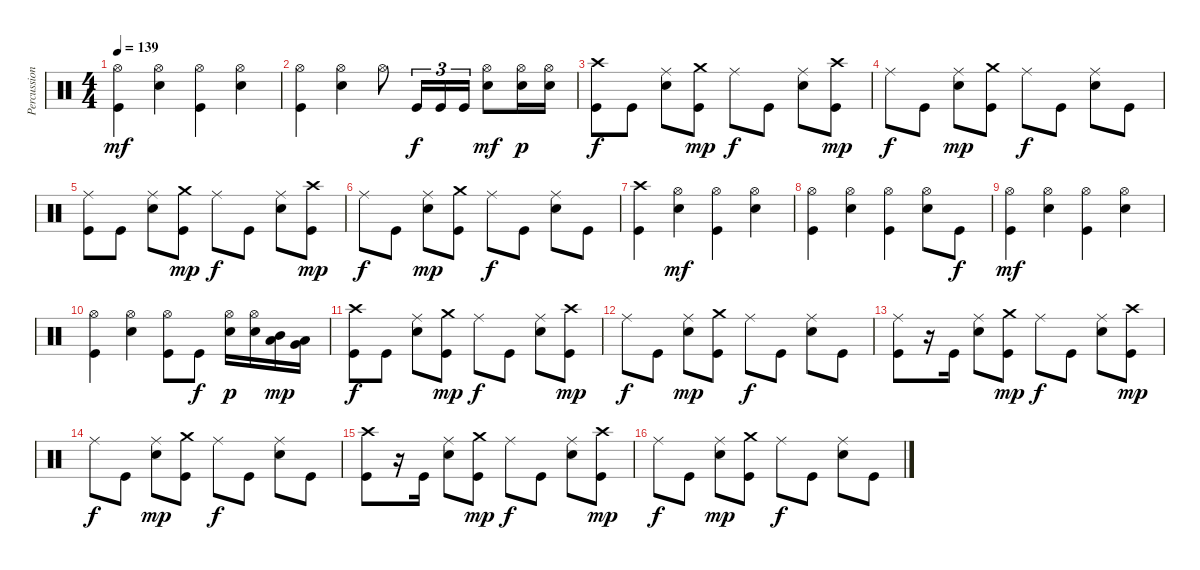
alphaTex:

\track ("Percussions" "Percussion") {instrument percussion}
\staff {score}
\articulation defaults
\ts (4 4)
\tempo 139
\clef neutral
\ks c
("Kick (hit)" "Hi-Hat (open)").4{dy mf} ("Electric Snare (hit)" "Hi-Hat (open)").4 ("Kick (hit)" "Hi-Hat (open)").4 ("Electric Snare (hit)" "Hi-Hat (open)").4 |
("Kick (hit)" "Hi-Hat (open)").4 ("Electric Snare (hit)" "Hi-Hat (open)").4 "Hi-Hat (open)".8 "Kick (hit)".16{tu (3 2) dy f} "Kick (hit)".16{tu (3 2)} "Kick (hit)".16{tu (3 2)} ("Electric Snare (hit)" "Hi-Hat (open)").8{dy mf} ("Electric Snare (hit)" "Hi-Hat (open)").16{dy p} ("Electric Snare (hit)" "Hi-Hat (open)").16 |
("Kick (hit)" "Crash high (hit)").8{dy f} "Kick (hit)".8 ("Electric Snare (hit)" "Ride (middle)").8 ("Kick (hit)" "Crash medium (hit)").8{dy mp} "Ride (middle)".8{dy f} "Kick (hit)".8 ("Electric Snare (hit)" "Ride (middle)").8 ("Kick (hit)" "Crash high (hit)").8{dy mp} |
"Ride (middle)".8{dy f} "Kick (hit)".8 ("Electric Snare (hit)" "Ride (middle)").8{dy mp} ("Kick (hit)" "Crash medium (hit)").8 "Ride (middle)".8{dy f} "Kick (hit)".8 ("Electric Snare (hit)" "Ride (middle)").8 "Kick (hit)".8 |
("Kick (hit)" "Ride (middle)").8 "Kick (hit)".8 ("Electric Snare (hit)" "Ride (middle)").8 ("Kick (hit)" "Crash medium (hit)").8{dy mp} "Ride (middle)".8{dy f} "Kick (hit)".8 ("Electric Snare (hit)" "Ride (middle)").8 ("Kick (hit)" "Crash high (hit)").8{dy mp} |
"Ride (middle)".8{dy f} "Kick (hit)".8 ("Electric Snare (hit)" "Ride (middle)").8{dy mp} ("Kick (hit)" "Crash medium (hit)").8 "Ride (middle)".8{dy f} "Kick (hit)".8 ("Electric Snare (hit)" "Ride (middle)").8 "Kick (hit)".8 |
("Kick (hit)" "Crash high (hit)").4 ("Electric Snare (hit)" "Hi-Hat (open)").4{dy mf} ("Kick (hit)" "Hi-Hat (open)").4 ("Electric Snare (hit)" "Hi-Hat (open)").4 |
("Kick (hit)" "Hi-Hat (open)").4 ("Electric Snare (hit)" "Hi-Hat (open)").4 ("Kick (hit)" "Hi-Hat (open)").4 ("Electric Snare (hit)" "Hi-Hat (open)").8 "Kick (hit)".8{dy f} |
("Kick (hit)" "Hi-Hat (open)").4{dy mf} ("Electric Snare (hit)" "Hi-Hat (open)").4 ("Kick (hit)" "Hi-Hat (open)").4 ("Electric Snare (hit)" "Hi-Hat (open)").4 |
("Kick (hit)" "Hi-Hat (open)").4 ("Electric Snare (hit)" "Hi-Hat (open)").4 ("Kick (hit)" "Hi-Hat (open)").8 "Kick (hit)".8{dy f} ("Electric Snare (hit)" "Hi-Hat (open)").16{dy p} ("Electric Snare (hit)" "Hi-Hat (open)").16 ("Low Tom (hit)" "Mid Tom (hit)").16{dy mp} ("Very Low Tom (hit)" "Low Tom (hit)").16 |
("Kick (hit)" "Crash high (hit)").8{dy f} "Kick (hit)".8 ("Electric Snare (hit)" "Ride (middle)").8 ("Kick (hit)" "Crash medium (hit)").8{dy mp} "Ride (middle)".8{dy f} "Kick (hit)".8 ("Electric Snare (hit)" "Ride (middle)").8 ("Kick (hit)" "Crash high (hit)").8{dy mp} |
"Ride (middle)".8{dy f} "Kick (hit)".8 ("Electric Snare (hit)" "Ride (middle)").8{dy mp} ("Kick (hit)" "Crash medium (hit)").8 "Ride (middle)".8{dy f} "Kick (hit)".8 ("Electric Snare (hit)" "Ride (middle)").8 "Kick (hit)".8 |
("Kick (hit)" "Ride (middle)").8 r.16 "Kick (hit)".16 ("Electric Snare (hit)" "Ride (middle)").8 ("Kick (hit)" "Crash medium (hit)").8{dy mp} "Ride (middle)".8{dy f} "Kick (hit)".8 ("Electric Snare (hit)" "Ride (middle)").8 ("Kick (hit)" "Crash high (hit)").8{dy mp} |
"Ride (middle)".8{dy f} "Kick (hit)".8 ("Electric Snare (hit)" "Ride (middle)").8{dy mp} ("Kick (hit)" "Crash medium (hit)").8 "Ride (middle)".8{dy f} "Kick (hit)".8 ("Electric Snare (hit)" "Ride (middle)").8 "Kick (hit)".8 |
("Kick (hit)" "Crash high (hit)").8 r.16 "Kick (hit)".16 ("Electric Snare (hit)" "Ride (middle)").8 ("Kick (hit)" "Crash medium (hit)").8{dy mp} "Ride (middle)".8{dy f} "Kick (hit)".8 ("Electric Snare (hit)" "Ride (middle)").8 ("Kick (hit)" "Crash high (hit)").8{dy mp} |
"Ride (middle)".8{dy f} "Kick (hit)".8 ("Electric Snare (hit)" "Ride (middle)").8{dy mp} ("Kick (hit)" "Crash medium (hit)").8 "Ride (middle)".8{dy f} "Kick (hit)".8 ("Electric Snare (hit)" "Ride (middle)").8 "Kick (hit)".8
